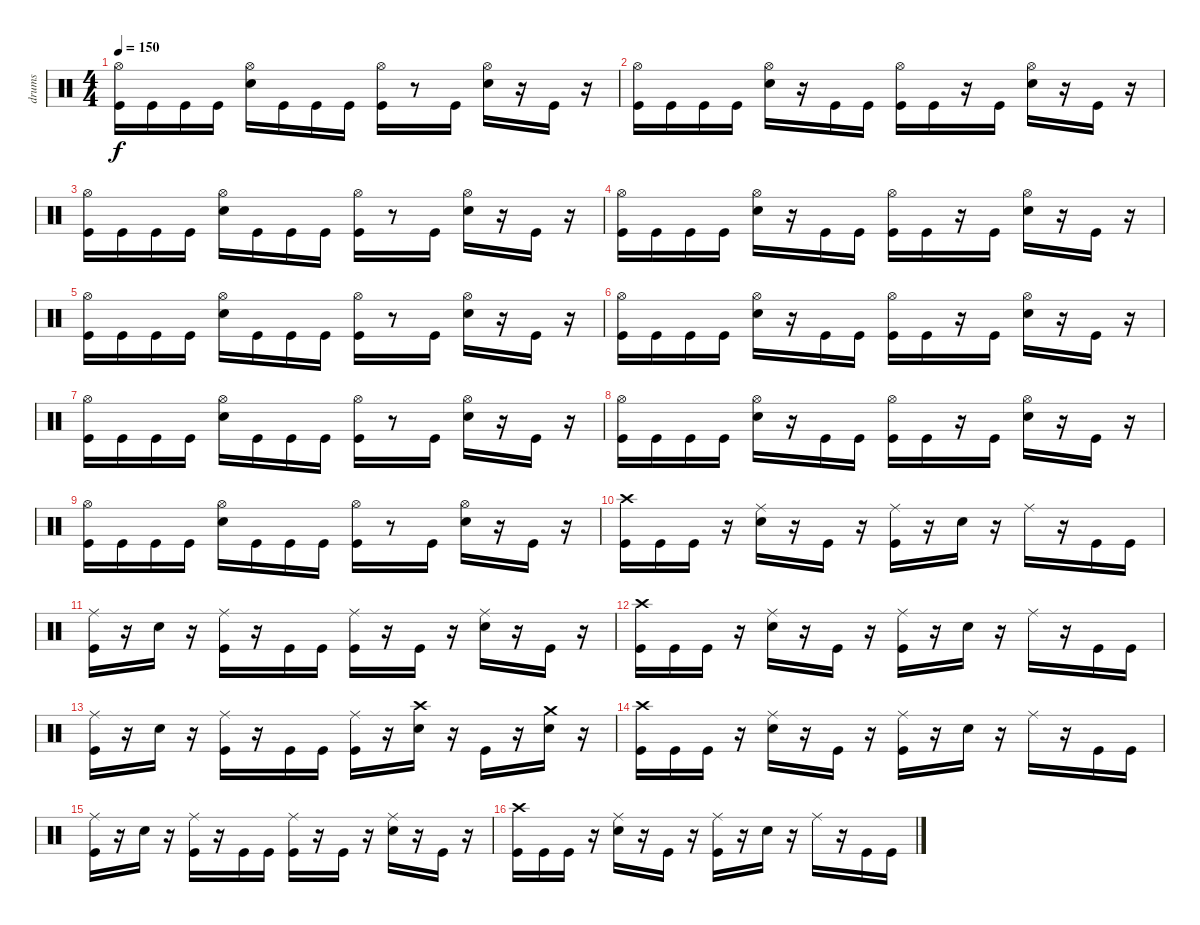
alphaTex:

\track ("drums" "drums") {instrument percussion}
\staff {score}
\articulation defaults
\ts (4 4)
\tempo 150
\clef neutral
\ks c
("Hi-Hat (open)" "Kick (hit)").16{dy f} "Kick (hit)".16 "Kick (hit)".16 "Kick (hit)".16 ("Electric Snare (hit)" "Hi-Hat (open)").16 "Kick (hit)".16 "Kick (hit)".16 "Kick (hit)".16 ("Hi-Hat (open)" "Kick (hit)").16 r.8 "Kick (hit)".16 ("Hi-Hat (open)" "Electric Snare (hit)").16 r.16 "Kick (hit)".16 r.16 |
("Hi-Hat (open)" "Kick (hit)").16 "Kick (hit)".16 "Kick (hit)".16 "Kick (hit)".16 ("Hi-Hat (open)" "Electric Snare (hit)").16 r.16 "Kick (hit)".16 "Kick (hit)".16 ("Hi-Hat (open)" "Kick (hit)").16 "Kick (hit)".16 r.16 "Kick (hit)".16 ("Hi-Hat (open)" "Electric Snare (hit)").16 r.16 "Kick (hit)".16 r.16 |
("Hi-Hat (open)" "Kick (hit)").16 "Kick (hit)".16 "Kick (hit)".16 "Kick (hit)".16 ("Electric Snare (hit)" "Hi-Hat (open)").16 "Kick (hit)".16 "Kick (hit)".16 "Kick (hit)".16 ("Hi-Hat (open)" "Kick (hit)").16 r.8 "Kick (hit)".16 ("Hi-Hat (open)" "Electric Snare (hit)").16 r.16 "Kick (hit)".16 r.16 |
("Hi-Hat (open)" "Kick (hit)").16 "Kick (hit)".16 "Kick (hit)".16 "Kick (hit)".16 ("Hi-Hat (open)" "Electric Snare (hit)").16 r.16 "Kick (hit)".16 "Kick (hit)".16 ("Hi-Hat (open)" "Kick (hit)").16 "Kick (hit)".16 r.16 "Kick (hit)".16 ("Hi-Hat (open)" "Electric Snare (hit)").16 r.16 "Kick (hit)".16 r.16 |
("Hi-Hat (open)" "Kick (hit)").16 "Kick (hit)".16 "Kick (hit)".16 "Kick (hit)".16 ("Electric Snare (hit)" "Hi-Hat (open)").16 "Kick (hit)".16 "Kick (hit)".16 "Kick (hit)".16 ("Hi-Hat (open)" "Kick (hit)").16 r.8 "Kick (hit)".16 ("Hi-Hat (open)" "Electric Snare (hit)").16 r.16 "Kick (hit)".16 r.16 |
("Hi-Hat (open)" "Kick (hit)").16 "Kick (hit)".16 "Kick (hit)".16 "Kick (hit)".16 ("Hi-Hat (open)" "Electric Snare (hit)").16 r.16 "Kick (hit)".16 "Kick (hit)".16 ("Hi-Hat (open)" "Kick (hit)").16 "Kick (hit)".16 r.16 "Kick (hit)".16 ("Hi-Hat (open)" "Electric Snare (hit)").16 r.16 "Kick (hit)".16 r.16 |
("Hi-Hat (open)" "Kick (hit)").16 "Kick (hit)".16 "Kick (hit)".16 "Kick (hit)".16 ("Electric Snare (hit)" "Hi-Hat (open)").16 "Kick (hit)".16 "Kick (hit)".16 "Kick (hit)".16 ("Hi-Hat (open)" "Kick (hit)").16 r.8 "Kick (hit)".16 ("Hi-Hat (open)" "Electric Snare (hit)").16 r.16 "Kick (hit)".16 r.16 |
("Hi-Hat (open)" "Kick (hit)").16 "Kick (hit)".16 "Kick (hit)".16 "Kick (hit)".16 ("Hi-Hat (open)" "Electric Snare (hit)").16 r.16 "Kick (hit)".16 "Kick (hit)".16 ("Hi-Hat (open)" "Kick (hit)").16 "Kick (hit)".16 r.16 "Kick (hit)".16 ("Hi-Hat (open)" "Electric Snare (hit)").16 r.16 "Kick (hit)".16 r.16 |
("Hi-Hat (open)" "Kick (hit)").16 "Kick (hit)".16 "Kick (hit)".16 "Kick (hit)".16 ("Electric Snare (hit)" "Hi-Hat (open)").16 "Kick (hit)".16 "Kick (hit)".16 "Kick (hit)".16 ("Hi-Hat (open)" "Kick (hit)").16 r.8 "Kick (hit)".16 ("Hi-Hat (open)" "Electric Snare (hit)").16 r.16 "Kick (hit)".16 r.16 |
("Crash high (hit)" "Kick (hit)").16 "Kick (hit)".16 "Kick (hit)".16 r.16 ("Ride (middle)" "Electric Snare (hit)").16 r.16 "Kick (hit)".16 r.16 ("Ride (middle)" "Kick (hit)").16 r.16 "Electric Snare (hit)".16 r.16 "Ride (middle)".16 r.16 "Kick (hit)".16 "Kick (hit)".16 |
("Ride (middle)" "Kick (hit)").16 r.16 "Electric Snare (hit)".16 r.16 ("Ride (middle)" "Kick (hit)").16 r.16 "Kick (hit)".16 "Kick (hit)".16 ("Ride (middle)" "Kick (hit)").16 r.16 "Kick (hit)".16 r.16 ("Ride (middle)" "Electric Snare (hit)").16 r.16 "Kick (hit)".16 r.16 |
("Crash high (hit)" "Kick (hit)").16 "Kick (hit)".16 "Kick (hit)".16 r.16 ("Ride (middle)" "Electric Snare (hit)").16 r.16 "Kick (hit)".16 r.16 ("Ride (middle)" "Kick (hit)").16 r.16 "Electric Snare (hit)".16 r.16 "Ride (middle)".16 r.16 "Kick (hit)".16 "Kick (hit)".16 |
("Ride (middle)" "Kick (hit)").16 r.16 "Electric Snare (hit)".16 r.16 ("Ride (middle)" "Kick (hit)").16 r.16 "Kick (hit)".16 "Kick (hit)".16 ("Ride (middle)" "Kick (hit)").16 r.16 ("Crash high (hit)" "Electric Snare (hit)").16 r.16 "Kick (hit)".16 r.16 ("Crash medium (hit)" "Electric Snare (hit)").16 r.16 |
("Crash high (hit)" "Kick (hit)").16 "Kick (hit)".16 "Kick (hit)".16 r.16 ("Ride (middle)" "Electric Snare (hit)").16 r.16 "Kick (hit)".16 r.16 ("Ride (middle)" "Kick (hit)").16 r.16 "Electric Snare (hit)".16 r.16 "Ride (middle)".16 r.16 "Kick (hit)".16 "Kick (hit)".16 |
("Ride (middle)" "Kick (hit)").16 r.16 "Electric Snare (hit)".16 r.16 ("Ride (middle)" "Kick (hit)").16 r.16 "Kick (hit)".16 "Kick (hit)".16 ("Ride (middle)" "Kick (hit)").16 r.16 "Kick (hit)".16 r.16 ("Ride (middle)" "Electric Snare (hit)").16 r.16 "Kick (hit)".16 r.16 |
("Crash high (hit)" "Kick (hit)").16 "Kick (hit)".16 "Kick (hit)".16 r.16 ("Ride (middle)" "Electric Snare (hit)").16 r.16 "Kick (hit)".16 r.16 ("Ride (middle)" "Kick (hit)").16 r.16 "Electric Snare (hit)".16 r.16 "Ride (middle)".16 r.16 "Kick (hit)".16 "Kick (hit)".16
